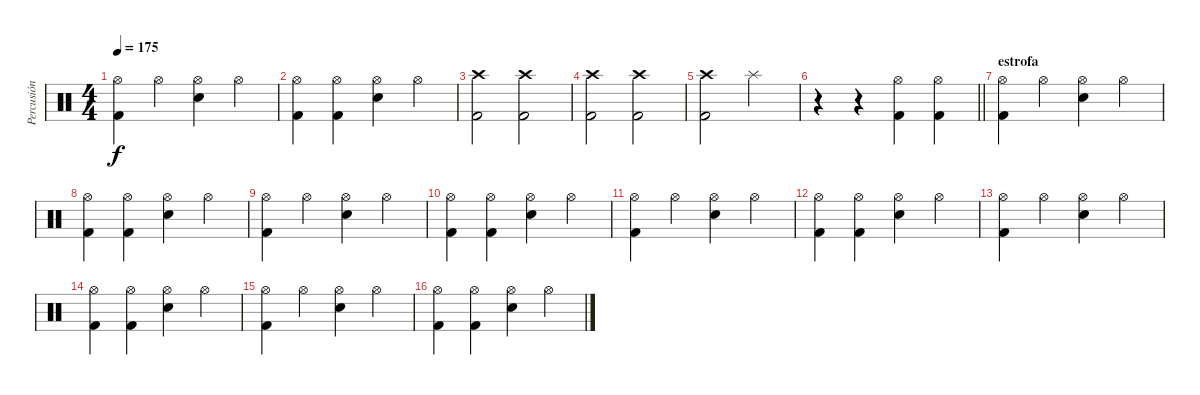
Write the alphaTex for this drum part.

\track ("Percusión" "Percusión") {instrument percussion}
\staff {score}
\articulation defaults
\ts (4 4)
\tempo 175
\clef neutral
\ks c
("Hi-Hat (open)" "Kick (hit) 2").4{dy f} "Hi-Hat (open)".4 ("Hi-Hat (open)" "Snare (hit) 2").4 "Hi-Hat (open)".4 |
("Hi-Hat (open)" "Kick (hit) 2").4 ("Hi-Hat (open)" "Kick (hit) 2").4 ("Hi-Hat (open)" "Snare (hit) 2").4 "Hi-Hat (open)".4 |
("Crash high (hit)" "Kick (hit) 2").2 ("Crash high (hit)" "Kick (hit) 2").2 |
("Crash high (hit)" "Kick (hit) 2").2 ("Crash high (hit)" "Kick (hit) 2").2 |
("Crash high (hit)" "Kick (hit) 2").2 "Splash (hit)".2 |
\barLineRight lightlight
r.4 r.4 ("Hi-Hat (open)" "Kick (hit) 2").4 ("Hi-Hat (open)" "Kick (hit) 2").4 |
\section ("" "estrofa")
("Hi-Hat (open)" "Kick (hit) 2").4 "Hi-Hat (open)".4 ("Hi-Hat (open)" "Snare (hit) 2").4 "Hi-Hat (open)".4 |
("Hi-Hat (open)" "Kick (hit) 2").4 ("Hi-Hat (open)" "Kick (hit) 2").4 ("Hi-Hat (open)" "Snare (hit) 2").4 "Hi-Hat (open)".4 |
("Hi-Hat (open)" "Kick (hit) 2").4 "Hi-Hat (open)".4 ("Hi-Hat (open)" "Snare (hit) 2").4 "Hi-Hat (open)".4 |
("Hi-Hat (open)" "Kick (hit) 2").4 ("Hi-Hat (open)" "Kick (hit) 2").4 ("Hi-Hat (open)" "Snare (hit) 2").4 "Hi-Hat (open)".4 |
("Hi-Hat (open)" "Kick (hit) 2").4 "Hi-Hat (open)".4 ("Hi-Hat (open)" "Snare (hit) 2").4 "Hi-Hat (open)".4 |
("Hi-Hat (open)" "Kick (hit) 2").4 ("Hi-Hat (open)" "Kick (hit) 2").4 ("Hi-Hat (open)" "Snare (hit) 2").4 "Hi-Hat (open)".4 |
("Hi-Hat (open)" "Kick (hit) 2").4 "Hi-Hat (open)".4 ("Hi-Hat (open)" "Snare (hit) 2").4 "Hi-Hat (open)".4 |
("Hi-Hat (open)" "Kick (hit) 2").4 ("Hi-Hat (open)" "Kick (hit) 2").4 ("Hi-Hat (open)" "Snare (hit) 2").4 "Hi-Hat (open)".4 |
("Hi-Hat (open)" "Kick (hit) 2").4 "Hi-Hat (open)".4 ("Hi-Hat (open)" "Snare (hit) 2").4 "Hi-Hat (open)".4 |
("Hi-Hat (open)" "Kick (hit) 2").4 ("Hi-Hat (open)" "Kick (hit) 2").4 ("Hi-Hat (open)" "Snare (hit) 2").4 "Hi-Hat (open)".4
